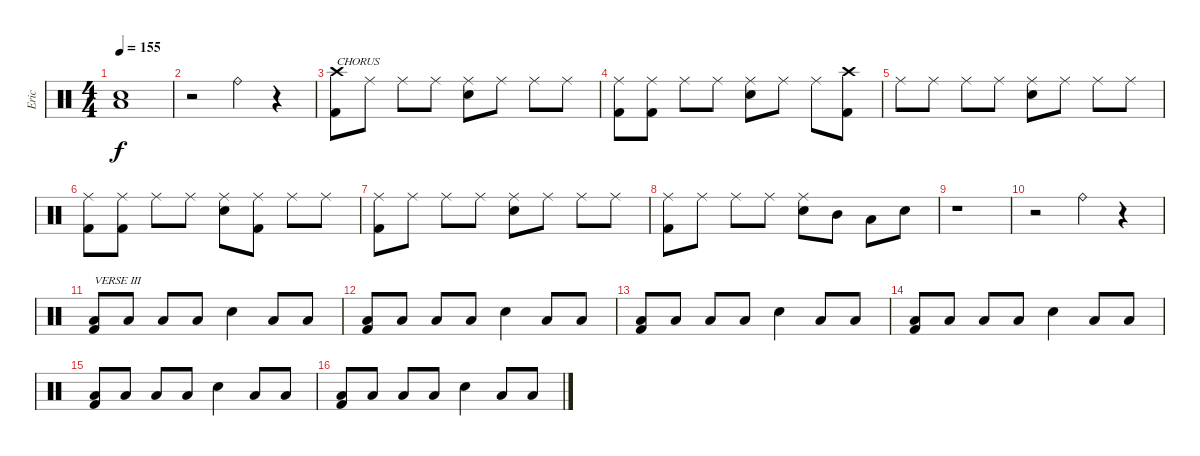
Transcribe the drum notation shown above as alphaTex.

\track ("Eric" "Eric") {instrument percussion}
\staff {score}
\articulation defaults
\ts (4 4)
\tempo 155
\clef neutral
\ks c
("Low Floor Tom (hit)" "Electric Snare (hit)").1{dy f} |
r.2 "Ride (bell)".4 r.4 |
("Crash high (hit)" "Kick (hit) 2").8{txt "CHORUS"} "Ride (middle)".8 "Ride (middle)".8 "Ride (middle)".8 ("Ride (middle)" "Electric Snare (hit)").8 "Ride (middle)".8 "Ride (middle)".8 "Ride (middle)".8 |
("Ride (middle)" "Kick (hit) 2").8 ("Ride (middle)" "Kick (hit) 2").8 "Ride (middle)".8 "Ride (middle)".8 ("Ride (middle)" "Electric Snare (hit)").8 "Ride (middle)".8 "Ride (middle)".8 ("Crash high (hit)" "Kick (hit) 2").8 |
"Ride (middle)".8 "Ride (middle)".8 "Ride (middle)".8 "Ride (middle)".8 ("Ride (middle)" "Electric Snare (hit)").8 "Ride (middle)".8 "Ride (middle)".8 "Ride (middle)".8 |
("Ride (middle)" "Kick (hit) 2").8 ("Ride (middle)" "Kick (hit) 2").8 "Ride (middle)".8 "Ride (middle)".8 ("Ride (middle)" "Electric Snare (hit)").8 ("Ride (middle)" "Kick (hit) 2").8 "Ride (middle)".8 "Ride (middle)".8 |
("Ride (middle)" "Kick (hit) 2").8 "Ride (middle)".8 "Ride (middle)".8 "Ride (middle)".8 ("Ride (middle)" "Electric Snare (hit)").8 "Ride (middle)".8 "Ride (middle)".8 "Ride (middle)".8 |
("Ride (middle)" "Kick (hit) 2").8 "Ride (middle)".8 "Ride (middle)".8 "Ride (middle)".8 ("Ride (middle)" "Electric Snare (hit)").8 "Mid Tom (hit)".8 "Low Tom (hit)".8 "Electric Snare (hit)".8 |
r.1 |
r.2 "Ride (bell)".4 r.4 |
("Low Floor Tom (hit)" "Kick (hit) 2").8{txt "VERSE III"} "Low Floor Tom (hit)".8 "Low Floor Tom (hit)".8 "Low Floor Tom (hit)".8 "Electric Snare (hit)".4 "Low Floor Tom (hit)".8 "Low Floor Tom (hit)".8 |
("Low Floor Tom (hit)" "Kick (hit) 2").8 "Low Floor Tom (hit)".8 "Low Floor Tom (hit)".8 "Low Floor Tom (hit)".8 "Electric Snare (hit)".4 "Low Floor Tom (hit)".8 "Low Floor Tom (hit)".8 |
("Low Floor Tom (hit)" "Kick (hit) 2").8 "Low Floor Tom (hit)".8 "Low Floor Tom (hit)".8 "Low Floor Tom (hit)".8 "Electric Snare (hit)".4 "Low Floor Tom (hit)".8 "Low Floor Tom (hit)".8 |
("Low Floor Tom (hit)" "Kick (hit) 2").8 "Low Floor Tom (hit)".8 "Low Floor Tom (hit)".8 "Low Floor Tom (hit)".8 "Electric Snare (hit)".4 "Low Floor Tom (hit)".8 "Low Floor Tom (hit)".8 |
("Low Floor Tom (hit)" "Kick (hit) 2").8 "Low Floor Tom (hit)".8 "Low Floor Tom (hit)".8 "Low Floor Tom (hit)".8 "Electric Snare (hit)".4 "Low Floor Tom (hit)".8 "Low Floor Tom (hit)".8 |
("Low Floor Tom (hit)" "Kick (hit) 2").8 "Low Floor Tom (hit)".8 "Low Floor Tom (hit)".8 "Low Floor Tom (hit)".8 "Electric Snare (hit)".4 "Low Floor Tom (hit)".8 "Low Floor Tom (hit)".8
